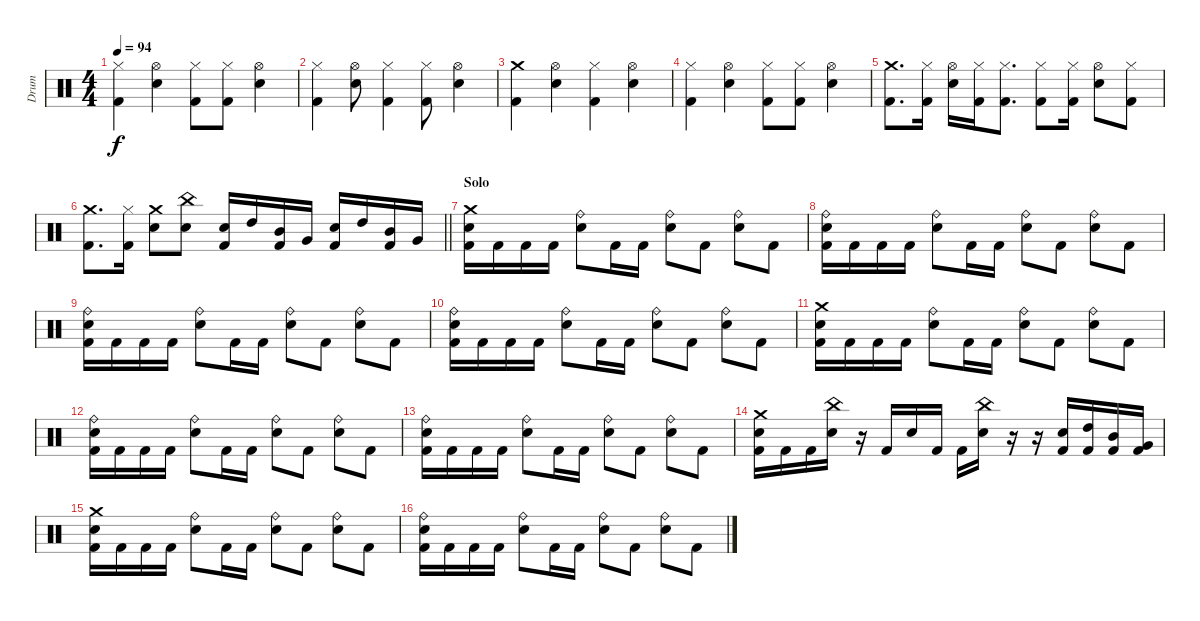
\track ("Drum" "Drum") {instrument percussion}
\staff {score}
\articulation defaults
\ts (4 4)
\tempo 94
\clef neutral
\ks c
("Kick (hit) 2" "Hi-Hat (closed)").4{dy f} ("Hi-Hat (open)" "Electric Snare (hit)").4 ("Kick (hit) 2" "Hi-Hat (closed)").8 ("Kick (hit) 2" "Hi-Hat (closed)").8 ("Hi-Hat (open)" "Electric Snare (hit)").4 |
("Kick (hit) 2" "Hi-Hat (closed)").4 ("Hi-Hat (open)" "Electric Snare (hit)").8 ("Kick (hit) 2" "Hi-Hat (closed)").4 ("Kick (hit) 2" "Hi-Hat (closed)").8 ("Hi-Hat (open)" "Electric Snare (hit)").4 |
("Kick (hit) 2" "Crash medium (hit)").4 ("Hi-Hat (open)" "Electric Snare (hit)").4 ("Hi-Hat (closed)" "Kick (hit) 2").4 ("Hi-Hat (open)" "Electric Snare (hit)").4 |
("Kick (hit) 2" "Hi-Hat (closed)").4 ("Hi-Hat (open)" "Electric Snare (hit)").4 ("Kick (hit) 2" "Hi-Hat (closed)").8 ("Kick (hit) 2" "Hi-Hat (closed)").8 ("Hi-Hat (open)" "Electric Snare (hit)").4 |
("Kick (hit) 2" "Crash medium (hit)").8{d} ("Kick (hit) 2" "Hi-Hat (closed)").16 ("Hi-Hat (open)" "Electric Snare (hit)").16 ("Kick (hit) 2" "Hi-Hat (closed)").16 ("Kick (hit) 2" "Hi-Hat (closed)").8{d} ("Kick (hit) 2" "Hi-Hat (closed)").8 ("Kick (hit) 2" "Hi-Hat (closed)").16 ("Hi-Hat (open)" "Electric Snare (hit)").8 ("Kick (hit) 2" "Hi-Hat (closed)").8 |
\barLineRight lightlight
("Kick (hit) 2" "Crash medium (hit)").8{d} ("Kick (hit) 2" "Hi-Hat (closed)").16 ("Crash medium (hit)" "Electric Snare (hit)").8 ("China (hit)" "Electric Snare (hit)").8 ("Kick (hit) 2" "Electric Snare (hit)").16 "High Tom (hit)".16 ("Kick (hit) 2" "Mid Tom (hit)").16 "Very Low Tom (hit)".16 ("Kick (hit) 2" "Electric Snare (hit)").16 "High Tom (hit)".16 ("Kick (hit) 2" "Mid Tom (hit)").16 "Very Low Tom (hit)".16 |
\section ("" "Solo")
("Kick (hit) 2" "Electric Snare (hit)" "Crash medium (hit)").16 "Kick (hit) 2".16 "Kick (hit) 2".16 "Kick (hit) 2".16 ("Electric Snare (hit)" "Ride (bell)").8 "Kick (hit) 2".16 "Kick (hit) 2".16 ("Electric Snare (hit)" "Ride (bell)").8 "Kick (hit) 2".8 ("Electric Snare (hit)" "Ride (bell)").8 "Kick (hit) 2".8 |
("Kick (hit) 2" "Electric Snare (hit)" "Ride (bell)").16 "Kick (hit) 2".16 "Kick (hit) 2".16 "Kick (hit) 2".16 ("Electric Snare (hit)" "Ride (bell)").8 "Kick (hit) 2".16 "Kick (hit) 2".16 ("Electric Snare (hit)" "Ride (bell)").8 "Kick (hit) 2".8 ("Electric Snare (hit)" "Ride (bell)").8 "Kick (hit) 2".8 |
("Kick (hit) 2" "Electric Snare (hit)" "Ride (bell)").16 "Kick (hit) 2".16 "Kick (hit) 2".16 "Kick (hit) 2".16 ("Electric Snare (hit)" "Ride (bell)").8 "Kick (hit) 2".16 "Kick (hit) 2".16 ("Electric Snare (hit)" "Ride (bell)").8 "Kick (hit) 2".8 ("Electric Snare (hit)" "Ride (bell)").8 "Kick (hit) 2".8 |
("Kick (hit) 2" "Electric Snare (hit)" "Ride (bell)").16 "Kick (hit) 2".16 "Kick (hit) 2".16 "Kick (hit) 2".16 ("Electric Snare (hit)" "Ride (bell)").8 "Kick (hit) 2".16 "Kick (hit) 2".16 ("Electric Snare (hit)" "Ride (bell)").8 "Kick (hit) 2".8 ("Electric Snare (hit)" "Ride (bell)").8 "Kick (hit) 2".8 |
("Kick (hit) 2" "Electric Snare (hit)" "Crash medium (hit)").16 "Kick (hit) 2".16 "Kick (hit) 2".16 "Kick (hit) 2".16 ("Electric Snare (hit)" "Ride (bell)").8 "Kick (hit) 2".16 "Kick (hit) 2".16 ("Electric Snare (hit)" "Ride (bell)").8 "Kick (hit) 2".8 ("Electric Snare (hit)" "Ride (bell)").8 "Kick (hit) 2".8 |
("Kick (hit) 2" "Electric Snare (hit)" "Ride (bell)").16 "Kick (hit) 2".16 "Kick (hit) 2".16 "Kick (hit) 2".16 ("Electric Snare (hit)" "Ride (bell)").8 "Kick (hit) 2".16 "Kick (hit) 2".16 ("Electric Snare (hit)" "Ride (bell)").8 "Kick (hit) 2".8 ("Electric Snare (hit)" "Ride (bell)").8 "Kick (hit) 2".8 |
("Kick (hit) 2" "Electric Snare (hit)" "Ride (bell)").16 "Kick (hit) 2".16 "Kick (hit) 2".16 "Kick (hit) 2".16 ("Electric Snare (hit)" "Ride (bell)").8 "Kick (hit) 2".16 "Kick (hit) 2".16 ("Electric Snare (hit)" "Ride (bell)").8 "Kick (hit) 2".8 ("Electric Snare (hit)" "Ride (bell)").8 "Kick (hit) 2".8 |
("Kick (hit) 2" "Electric Snare (hit)" "Crash medium (hit)").16 "Kick (hit) 2".16 "Kick (hit) 2".16 ("Electric Snare (hit)" "China (hit)").16 r.16 "Kick (hit) 2".16 "Electric Snare (hit)".16 "Kick (hit) 2".16 "Kick (hit) 2".16 ("Electric Snare (hit)" "China (hit)").16 r.16 r.16 ("Kick (hit) 2" "Electric Snare (hit)").16 ("Kick (hit) 2" "High Tom (hit)").16 ("Kick (hit) 2" "Mid Tom (hit)").16 ("Kick (hit) 2" "Very Low Tom (hit)").16 |
("Kick (hit) 2" "Electric Snare (hit)" "Crash medium (hit)").16 "Kick (hit) 2".16 "Kick (hit) 2".16 "Kick (hit) 2".16 ("Electric Snare (hit)" "Ride (bell)").8 "Kick (hit) 2".16 "Kick (hit) 2".16 ("Electric Snare (hit)" "Ride (bell)").8 "Kick (hit) 2".8 ("Electric Snare (hit)" "Ride (bell)").8 "Kick (hit) 2".8 |
("Kick (hit) 2" "Electric Snare (hit)" "Ride (bell)").16 "Kick (hit) 2".16 "Kick (hit) 2".16 "Kick (hit) 2".16 ("Electric Snare (hit)" "Ride (bell)").8 "Kick (hit) 2".16 "Kick (hit) 2".16 ("Electric Snare (hit)" "Ride (bell)").8 "Kick (hit) 2".8 ("Electric Snare (hit)" "Ride (bell)").8 "Kick (hit) 2".8
